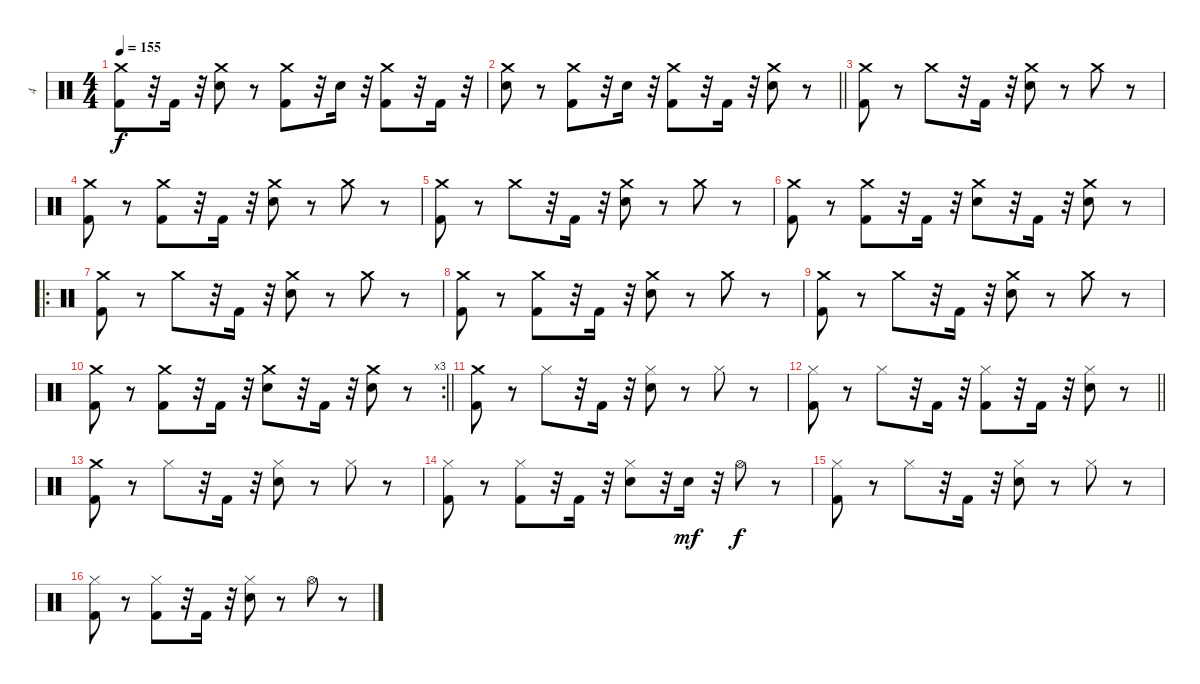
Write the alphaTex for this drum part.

\track ("4" "4") {instrument percussion}
\staff {score}
\articulation defaults
\ts (4 4)
\tempo 155
\clef neutral
\ks c
("Crash medium (hit)" "Kick (hit) 2").8{dy f} r.32 "Kick (hit) 2".16 r.32 ("Crash medium (hit)" "Electric Snare (hit)").8 r.8 ("Crash medium (hit)" "Kick (hit) 2").8 r.32 "Electric Snare (hit)".16 r.32 ("Crash medium (hit)" "Kick (hit) 2").8 r.32 "Kick (hit) 2".16 r.32 |
\barLineRight lightlight
("Crash medium (hit)" "Electric Snare (hit)").8 r.8 ("Crash medium (hit)" "Kick (hit) 2").8 r.32 "Electric Snare (hit)".16 r.32 ("Crash medium (hit)" "Kick (hit) 2").8 r.32 "Kick (hit) 2".16 r.32 ("Crash medium (hit)" "Electric Snare (hit)").8 r.8 |
\section ("" "")
("Crash medium (hit)" "Kick (hit) 2").8 r.8 "Crash medium (hit)".8 r.32 "Kick (hit) 2".16 r.32 ("Crash medium (hit)" "Electric Snare (hit)").8 r.8 "Crash medium (hit)".8 r.8 |
("Crash medium (hit)" "Kick (hit) 2").8 r.8 ("Crash medium (hit)" "Kick (hit) 2").8 r.32 "Kick (hit) 2".16 r.32 ("Crash medium (hit)" "Electric Snare (hit)").8 r.8 "Crash medium (hit)".8 r.8 |
("Crash medium (hit)" "Kick (hit) 2").8 r.8 "Crash medium (hit)".8 r.32 "Kick (hit) 2".16 r.32 ("Crash medium (hit)" "Electric Snare (hit)").8 r.8 "Crash medium (hit)".8 r.8 |
("Crash medium (hit)" "Kick (hit) 2").8 r.8 ("Crash medium (hit)" "Kick (hit) 2").8 r.32 "Kick (hit) 2".16 r.32 ("Crash medium (hit)" "Electric Snare (hit)").8 r.32 "Kick (hit) 2".16 r.32 ("Crash medium (hit)" "Electric Snare (hit)").8 r.8 |
\ro
("Crash medium (hit)" "Kick (hit) 2").8 r.8 "Crash medium (hit)".8 r.32 "Kick (hit) 2".16 r.32 ("Crash medium (hit)" "Electric Snare (hit)").8 r.8 "Crash medium (hit)".8 r.8 |
("Crash medium (hit)" "Kick (hit) 2").8 r.8 ("Crash medium (hit)" "Kick (hit) 2").8 r.32 "Kick (hit) 2".16 r.32 ("Crash medium (hit)" "Electric Snare (hit)").8 r.8 "Crash medium (hit)".8 r.8 |
("Crash medium (hit)" "Kick (hit) 2").8 r.8 "Crash medium (hit)".8 r.32 "Kick (hit) 2".16 r.32 ("Crash medium (hit)" "Electric Snare (hit)").8 r.8 "Crash medium (hit)".8 r.8 |
\rc 3
\barLineRight lightlight
("Crash medium (hit)" "Kick (hit) 2").8 r.8 ("Crash medium (hit)" "Kick (hit) 2").8 r.32 "Kick (hit) 2".16 r.32 ("Crash medium (hit)" "Electric Snare (hit)").8 r.32 "Kick (hit) 2".16 r.32 ("Crash medium (hit)" "Electric Snare (hit)").8 r.8 |
\section ("" "")
("Crash medium (hit)" "Kick (hit) 2").8 r.8 "Hi-Hat (closed)".8 r.32 "Kick (hit) 2".16 r.32 ("Hi-Hat (closed)" "Electric Snare (hit)").8 r.8 "Hi-Hat (closed)".8 r.8 |
\barLineRight lightlight
("Hi-Hat (closed)" "Kick (hit) 2").8 r.8 "Hi-Hat (closed)".8 r.32 "Kick (hit) 2".16 r.32 ("Hi-Hat (closed)" "Kick (hit) 2").8 r.32 "Kick (hit) 2".16 r.32 ("Hi-Hat (closed)" "Electric Snare (hit)").8 r.8 |
\section ("" "")
("Crash medium (hit)" "Kick (hit) 2").8 r.8 "Hi-Hat (closed)".8 r.32 "Kick (hit) 2".16 r.32 ("Hi-Hat (closed)" "Electric Snare (hit)").8 r.8 "Hi-Hat (closed)".8 r.8 |
("Hi-Hat (closed)" "Kick (hit) 2").8 r.8 ("Hi-Hat (closed)" "Kick (hit) 2").8 r.32 "Kick (hit) 2".16 r.32 ("Hi-Hat (closed)" "Electric Snare (hit)").8 r.32 "Electric Snare (hit)".16{dy mf} r.32 "Hi-Hat (open)".8{dy f} r.8 |
("Hi-Hat (closed)" "Kick (hit) 2").8 r.8 "Hi-Hat (closed)".8 r.32 "Kick (hit) 2".16 r.32 ("Hi-Hat (closed)" "Electric Snare (hit)").8 r.8 "Hi-Hat (closed)".8 r.8 |
("Hi-Hat (closed)" "Kick (hit) 2").8 r.8 ("Hi-Hat (closed)" "Kick (hit) 2").8 r.32 "Kick (hit) 2".16 r.32 ("Hi-Hat (closed)" "Electric Snare (hit)").8 r.8 "Hi-Hat (open)".8 r.8
